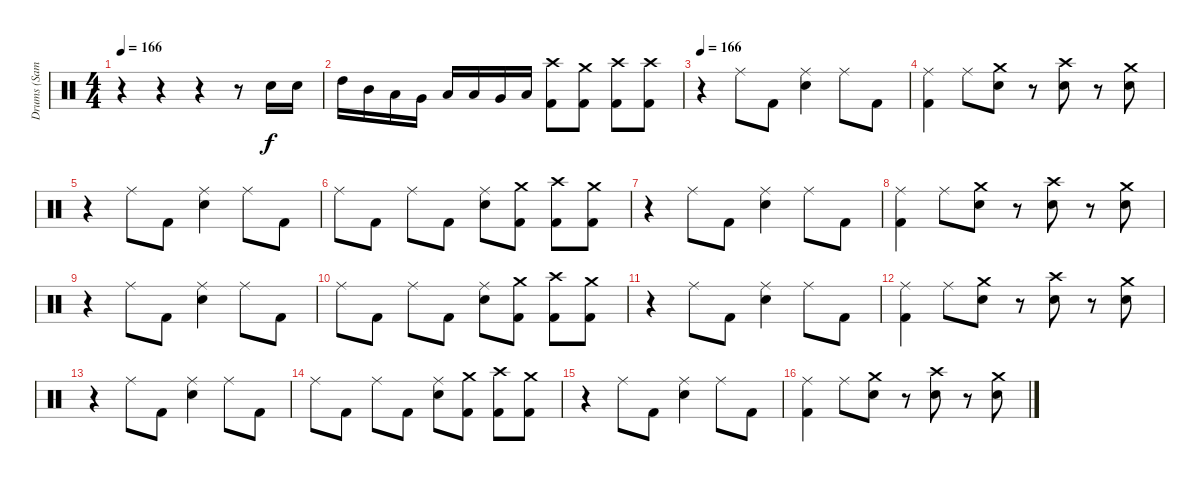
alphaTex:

\track ("Drums (Samuelson)" "Drums (Sam") {instrument percussion}
\staff
\articulation defaults
\ts (4 4)
\tempo 166
\clef neutral
\ks c
r.4{dy f} r.4 r.4 r.8 "Electric Snare (hit)".16 "Electric Snare (hit)".16 |
"High Tom (hit)".16 "Mid Tom (hit)".16 "Low Tom (hit)".16 "Very Low Tom (hit)".16 "Low Tom (hit)".16 "Low Tom (hit)".16 "Very Low Tom (hit)".16 "Low Floor Tom (hit)".16 ("Crash high (hit)" "Kick (hit) 2").8 ("Crash medium (hit)" "Kick (hit) 2").8 ("Crash high (hit)" "Kick (hit) 2").8 ("Crash high (hit)" "Kick (hit) 2").8 |
\tempo 166
r.4 "Ride (middle)".8 "Kick (hit) 2".8 ("Ride (middle)" "Electric Snare (hit)").4 "Ride (middle)".8 "Kick (hit) 2".8 |
("Ride (middle)" "Kick (hit) 2").4 "Ride (middle)".8 ("Crash medium (hit)" "Electric Snare (hit)").8 r.8 ("Crash high (hit)" "Electric Snare (hit)").8 r.8 ("Crash medium (hit)" "Electric Snare (hit)").8 |
r.4 "Ride (middle)".8 "Kick (hit) 2".8 ("Ride (middle)" "Electric Snare (hit)").4 "Ride (middle)".8 "Kick (hit) 2".8 |
"Ride (middle)".8 "Kick (hit) 2".8 "Ride (middle)".8 "Kick (hit) 2".8 ("Ride (middle)" "Electric Snare (hit)").8 ("Crash medium (hit)" "Kick (hit) 2").8 ("Crash high (hit)" "Kick (hit) 2").8 ("Crash medium (hit)" "Kick (hit) 2").8 |
r.4 "Ride (middle)".8 "Kick (hit) 2".8 ("Ride (middle)" "Electric Snare (hit)").4 "Ride (middle)".8 "Kick (hit) 2".8 |
("Ride (middle)" "Kick (hit) 2").4 "Ride (middle)".8 ("Crash medium (hit)" "Electric Snare (hit)").8 r.8 ("Crash high (hit)" "Electric Snare (hit)").8 r.8 ("Crash medium (hit)" "Electric Snare (hit)").8 |
r.4 "Ride (middle)".8 "Kick (hit) 2".8 ("Ride (middle)" "Electric Snare (hit)").4 "Ride (middle)".8 "Kick (hit) 2".8 |
"Ride (middle)".8 "Kick (hit) 2".8 "Ride (middle)".8 "Kick (hit) 2".8 ("Ride (middle)" "Electric Snare (hit)").8 ("Crash medium (hit)" "Kick (hit) 2").8 ("Crash high (hit)" "Kick (hit) 2").8 ("Crash medium (hit)" "Kick (hit) 2").8 |
r.4 "Ride (middle)".8 "Kick (hit) 2".8 ("Ride (middle)" "Electric Snare (hit)").4 "Ride (middle)".8 "Kick (hit) 2".8 |
("Ride (middle)" "Kick (hit) 2").4 "Ride (middle)".8 ("Crash medium (hit)" "Electric Snare (hit)").8 r.8 ("Crash high (hit)" "Electric Snare (hit)").8 r.8 ("Crash medium (hit)" "Electric Snare (hit)").8 |
r.4 "Ride (middle)".8 "Kick (hit) 2".8 ("Ride (middle)" "Electric Snare (hit)").4 "Ride (middle)".8 "Kick (hit) 2".8 |
"Ride (middle)".8 "Kick (hit) 2".8 "Ride (middle)".8 "Kick (hit) 2".8 ("Ride (middle)" "Electric Snare (hit)").8 ("Crash medium (hit)" "Kick (hit) 2").8 ("Crash high (hit)" "Kick (hit) 2").8 ("Crash medium (hit)" "Kick (hit) 2").8 |
r.4 "Ride (middle)".8 "Kick (hit) 2".8 ("Ride (middle)" "Electric Snare (hit)").4 "Ride (middle)".8 "Kick (hit) 2".8 |
("Ride (middle)" "Kick (hit) 2").4 "Ride (middle)".8 ("Crash medium (hit)" "Electric Snare (hit)").8 r.8 ("Crash high (hit)" "Electric Snare (hit)").8 r.8 ("Crash medium (hit)" "Electric Snare (hit)").8
